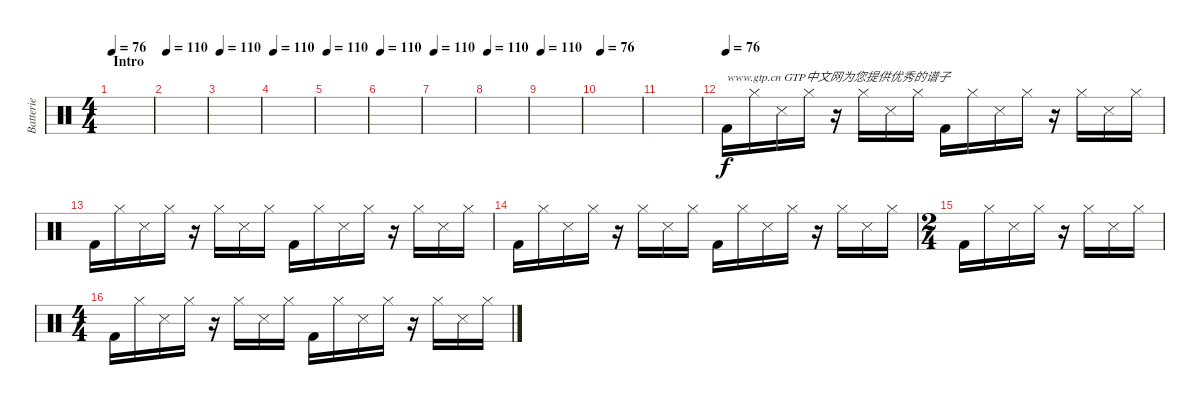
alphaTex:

\track ("Batterie" "Batterie") {instrument percussion}
\staff {score}
\articulation defaults
\ts (4 4)
\section ("" "Intro")
\tempo 76
\tempo 110
\tempo 76
\clef neutral
\ks c
|
\tempo 110
|
\tempo 110
|
\tempo 110
|
\tempo 110
|
\tempo 110
|
\tempo 110
|
\tempo 110
|
\tempo 110
|
\tempo 76
|
|
\tempo (76)
"Kick (hit) 2".16{txt "www.gtp.cn GTP中文网为您提供优秀的谱子"} "Hi-Hat (closed)".16 "Snare (side stick) 3".16 "Hi-Hat (closed)".16 r.16 "Hi-Hat (closed)".16 "Snare (side stick) 3".16 "Hi-Hat (closed)".16 "Kick (hit) 2".16 "Hi-Hat (closed)".16 "Snare (side stick) 3".16 "Hi-Hat (closed)".16 r.16 "Hi-Hat (closed)".16 "Snare (side stick) 3".16 "Hi-Hat (closed)".16 |
"Kick (hit) 2".16 "Hi-Hat (closed)".16 "Snare (side stick) 3".16 "Hi-Hat (closed)".16 r.16 "Hi-Hat (closed)".16 "Snare (side stick) 3".16 "Hi-Hat (closed)".16 "Kick (hit) 2".16 "Hi-Hat (closed)".16 "Snare (side stick) 3".16 "Hi-Hat (closed)".16 r.16 "Hi-Hat (closed)".16 "Snare (side stick) 3".16 "Hi-Hat (closed)".16 |
"Kick (hit) 2".16 "Hi-Hat (closed)".16 "Snare (side stick) 3".16 "Hi-Hat (closed)".16 r.16 "Hi-Hat (closed)".16 "Snare (side stick) 3".16 "Hi-Hat (closed)".16 "Kick (hit) 2".16 "Hi-Hat (closed)".16 "Snare (side stick) 3".16 "Hi-Hat (closed)".16 r.16 "Hi-Hat (closed)".16 "Snare (side stick) 3".16 "Hi-Hat (closed)".16 |
\ts (2 4)
"Kick (hit) 2".16 "Hi-Hat (closed)".16 "Snare (side stick) 3".16 "Hi-Hat (closed)".16 r.16 "Hi-Hat (closed)".16 "Snare (side stick) 3".16 "Hi-Hat (closed)".16 |
\ts (4 4)
"Kick (hit) 2".16 "Hi-Hat (closed)".16 "Snare (side stick) 3".16 "Hi-Hat (closed)".16 r.16 "Hi-Hat (closed)".16 "Snare (side stick) 3".16 "Hi-Hat (closed)".16 "Kick (hit) 2".16 "Hi-Hat (closed)".16 "Snare (side stick) 3".16 "Hi-Hat (closed)".16 r.16 "Hi-Hat (closed)".16 "Snare (side stick) 3".16 "Hi-Hat (closed)".16
